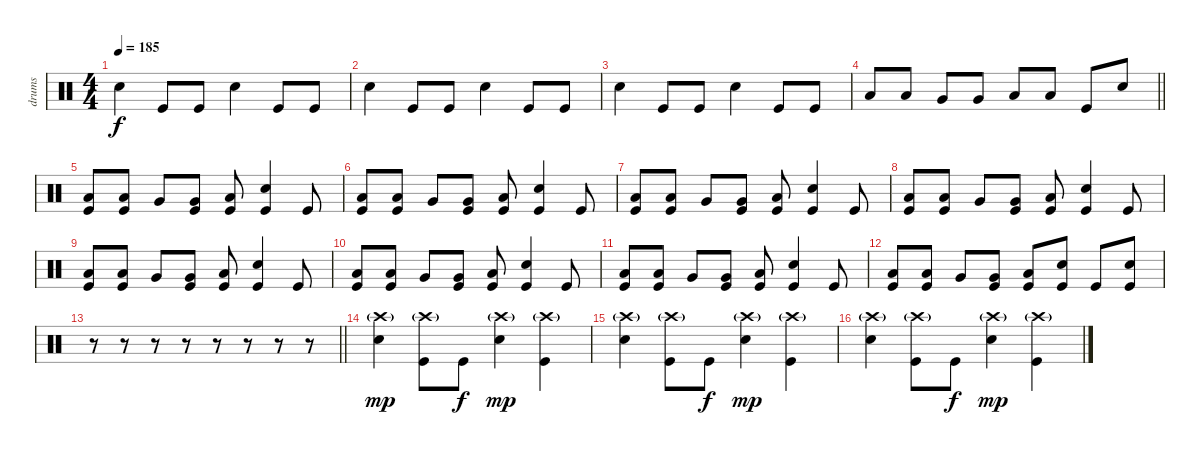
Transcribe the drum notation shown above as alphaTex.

\track ("drums" "drums") {instrument percussion}
\staff {score}
\articulation defaults
\ts (4 4)
\tempo 185
\clef neutral
\ks c "Electric Snare (hit)".4{dy f} "Kick (hit)".8 "Kick (hit)".8 "Electric Snare (hit)".4 "Kick (hit)".8 "Kick (hit)".8
|
"Electric Snare (hit)".4 "Kick (hit)".8 "Kick (hit)".8 "Electric Snare (hit)".4 "Kick (hit)".8 "Kick (hit)".8 |
"Electric Snare (hit)".4 "Kick (hit)".8 "Kick (hit)".8 "Electric Snare (hit)".4 "Kick (hit)".8 "Kick (hit)".8 |
\barLineRight lightlight "Low Tom (hit)".8 "Low Tom (hit)".8 "Very Low Tom (hit)".8 "Very Low Tom (hit)".8 "Low Floor Tom (hit)".8 "Low Floor Tom (hit)".8 "Kick (hit)".8 "Electric Snare (hit)".8
|
("Low Tom (hit)" "Kick (hit)").8 ("Low Tom (hit)" "Kick (hit)").8 "Very Low Tom (hit)".8 ("Very Low Tom (hit)" "Kick (hit)").8 ("Low Floor Tom (hit)" "Kick (hit)").8 ("Electric Snare (hit)" "Kick (hit)").4 "Kick (hit)".8 |
("Low Tom (hit)" "Kick (hit)").8 ("Low Tom (hit)" "Kick (hit)").8 "Very Low Tom (hit)".8 ("Very Low Tom (hit)" "Kick (hit)").8 ("Low Floor Tom (hit)" "Kick (hit)").8 ("Electric Snare (hit)" "Kick (hit)").4 "Kick (hit)".8 |
("Low Tom (hit)" "Kick (hit)").8 ("Low Tom (hit)" "Kick (hit)").8 "Very Low Tom (hit)".8 ("Very Low Tom (hit)" "Kick (hit)").8 ("Low Floor Tom (hit)" "Kick (hit)").8 ("Electric Snare (hit)" "Kick (hit)").4 "Kick (hit)".8 |
("Low Tom (hit)" "Kick (hit)").8 ("Low Tom (hit)" "Kick (hit)").8 "Very Low Tom (hit)".8 ("Very Low Tom (hit)" "Kick (hit)").8 ("Low Floor Tom (hit)" "Kick (hit)").8 ("Electric Snare (hit)" "Kick (hit)").4 "Kick (hit)".8 |
("Low Tom (hit)" "Kick (hit)").8 ("Low Tom (hit)" "Kick (hit)").8 "Very Low Tom (hit)".8 ("Very Low Tom (hit)" "Kick (hit)").8 ("Low Floor Tom (hit)" "Kick (hit)").8 ("Electric Snare (hit)" "Kick (hit)").4 "Kick (hit)".8 |
("Low Tom (hit)" "Kick (hit)").8 ("Low Tom (hit)" "Kick (hit)").8 "Very Low Tom (hit)".8 ("Very Low Tom (hit)" "Kick (hit)").8 ("Low Floor Tom (hit)" "Kick (hit)").8 ("Electric Snare (hit)" "Kick (hit)").4 "Kick (hit)".8 |
("Low Tom (hit)" "Kick (hit)").8 ("Low Tom (hit)" "Kick (hit)").8 "Very Low Tom (hit)".8 ("Very Low Tom (hit)" "Kick (hit)").8 ("Low Floor Tom (hit)" "Kick (hit)").8 ("Electric Snare (hit)" "Kick (hit)").4 "Kick (hit)".8 |
("Low Tom (hit)" "Kick (hit)").8 ("Low Tom (hit)" "Kick (hit)").8 "Very Low Tom (hit)".8 ("Very Low Tom (hit)" "Kick (hit)").8 ("Low Floor Tom (hit)" "Kick (hit)").8 ("Electric Snare (hit)" "Kick (hit)").8 "Kick (hit)".8 ("Electric Snare (hit)" "Kick (hit)").8 |
\barLineRight lightlight
r.8 r.8 r.8 r.8 r.8 r.8 r.8 r.8 |
("Crash high (hit)"{g} "Electric Snare (hit)").4{dy mp} ("Crash high (hit)"{g} "Kick (hit)").8 "Kick (hit)".8{dy f} ("Crash high (hit)"{g} "Electric Snare (hit)").4{dy mp} ("Crash high (hit)"{g} "Kick (hit)").4 |
("Crash high (hit)"{g} "Electric Snare (hit)").4 ("Crash high (hit)"{g} "Kick (hit)").8 "Kick (hit)".8{dy f} ("Crash high (hit)"{g} "Electric Snare (hit)").4{dy mp} ("Crash high (hit)"{g} "Kick (hit)").4 |
("Crash high (hit)"{g} "Electric Snare (hit)").4 ("Crash high (hit)"{g} "Kick (hit)").8 "Kick (hit)".8{dy f} ("Crash high (hit)"{g} "Electric Snare (hit)").4{dy mp} ("Crash high (hit)"{g} "Kick (hit)").4
